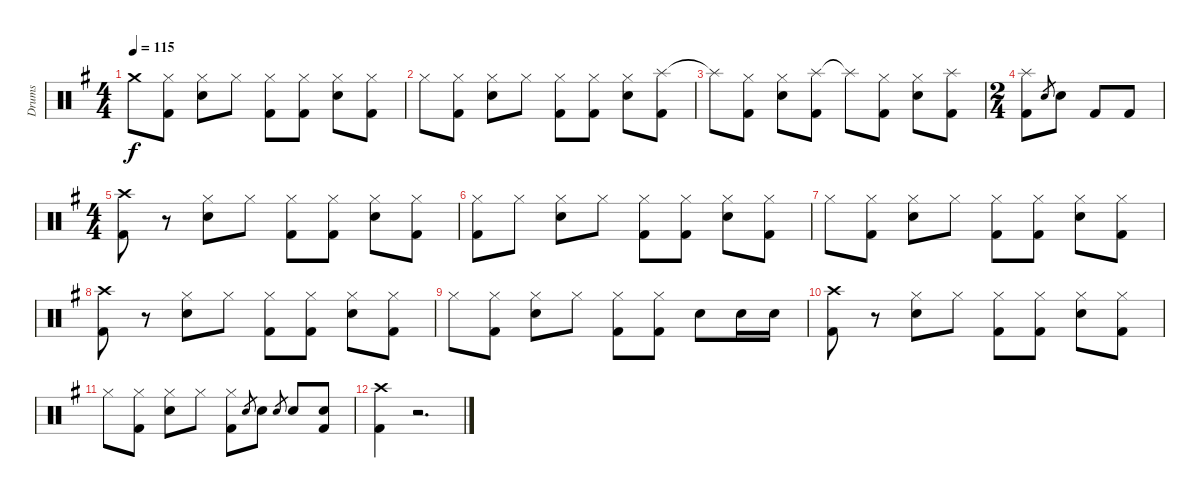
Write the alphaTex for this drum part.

\track ("Drums" "Drums") {instrument percussion}
\staff {score}
\articulation defaults
\ts (4 4)
\tempo 115
\clef neutral
\ks g "Crash medium (hit)"{t}.8{dy f}
("Hi-Hat (closed)" "Kick (hit) 2").8 ("Hi-Hat (closed)" "Electric Snare (hit)").8 "Hi-Hat (closed)".8 ("Hi-Hat (closed)" "Kick (hit) 2").8 ("Hi-Hat (closed)" "Kick (hit) 2").8 ("Hi-Hat (closed)" "Electric Snare (hit)").8 ("Hi-Hat (closed)" "Kick (hit) 2").8 |
"Hi-Hat (closed)".8 ("Hi-Hat (closed)" "Kick (hit) 2").8 ("Hi-Hat (closed)" "Electric Snare (hit)").8 "Hi-Hat (closed)".8 ("Hi-Hat (closed)" "Kick (hit) 2").8 ("Hi-Hat (closed)" "Kick (hit) 2").8 ("Hi-Hat (closed)" "Electric Snare (hit)").8 ("Splash (hit)" "Kick (hit) 2").8 |
"Splash (hit)"{t}.8 ("Hi-Hat (closed)" "Kick (hit) 2").8 ("Hi-Hat (closed)" "Electric Snare (hit)").8 ("Splash (hit)" "Kick (hit) 2").8 "Splash (hit)"{t}.8 ("Hi-Hat (closed)" "Kick (hit) 2").8 ("Hi-Hat (closed)" "Electric Snare (hit)").8 ("Splash (hit)" "Kick (hit) 2").8 |
\ts (2 4)
("Splash (hit)" "Kick (hit) 2").8 "Electric Snare (hit)".8{gr} "Electric Snare (hit)".8 "Kick (hit) 2".8 "Kick (hit) 2".8 |
\ts (4 4)
("Crash high (hit)" "Kick (hit) 2").8 r.8 ("Hi-Hat (closed)" "Electric Snare (hit)").8 "Hi-Hat (closed)".8 ("Hi-Hat (closed)" "Kick (hit) 2").8 ("Hi-Hat (closed)" "Kick (hit) 2").8 ("Hi-Hat (closed)" "Electric Snare (hit)").8 ("Hi-Hat (closed)" "Kick (hit) 2").8 |
("Hi-Hat (closed)" "Kick (hit) 2").8 "Hi-Hat (closed)".8 ("Hi-Hat (closed)" "Electric Snare (hit)").8 "Hi-Hat (closed)".8 ("Hi-Hat (closed)" "Kick (hit) 2").8 ("Hi-Hat (closed)" "Kick (hit) 2").8 ("Hi-Hat (closed)" "Electric Snare (hit)").8 ("Hi-Hat (closed)" "Kick (hit) 2").8 |
"Hi-Hat (closed)".8 ("Hi-Hat (closed)" "Kick (hit) 2").8 ("Hi-Hat (closed)" "Electric Snare (hit)").8 "Hi-Hat (closed)".8 ("Hi-Hat (closed)" "Kick (hit) 2").8 ("Hi-Hat (closed)" "Kick (hit) 2").8 ("Hi-Hat (closed)" "Electric Snare (hit)").8 ("Hi-Hat (closed)" "Kick (hit) 2").8 |
("Crash high (hit)" "Kick (hit) 2").8 r.8 ("Hi-Hat (closed)" "Electric Snare (hit)").8 "Hi-Hat (closed)".8 ("Hi-Hat (closed)" "Kick (hit) 2").8 ("Hi-Hat (closed)" "Kick (hit) 2").8 ("Hi-Hat (closed)" "Electric Snare (hit)").8 ("Hi-Hat (closed)" "Kick (hit) 2").8 |
"Hi-Hat (closed)".8 ("Hi-Hat (closed)" "Kick (hit) 2").8 ("Hi-Hat (closed)" "Electric Snare (hit)").8 "Hi-Hat (closed)".8 ("Hi-Hat (closed)" "Kick (hit) 2").8 ("Hi-Hat (closed)" "Kick (hit) 2").8 "Electric Snare (hit)".8 "Electric Snare (hit)".16 "Electric Snare (hit)".16 |
("Crash high (hit)" "Kick (hit) 2").8 r.8 ("Hi-Hat (closed)" "Electric Snare (hit)").8 "Hi-Hat (closed)".8 ("Hi-Hat (closed)" "Kick (hit) 2").8 ("Hi-Hat (closed)" "Kick (hit) 2").8 ("Hi-Hat (closed)" "Electric Snare (hit)").8 ("Hi-Hat (closed)" "Kick (hit) 2").8 |
"Hi-Hat (closed)".8 ("Hi-Hat (closed)" "Kick (hit) 2").8 ("Hi-Hat (closed)" "Electric Snare (hit)").8 "Hi-Hat (closed)".8 ("Hi-Hat (closed)" "Kick (hit) 2").8 "Electric Snare (hit)".8{gr} "Electric Snare (hit)".8 "Electric Snare (hit)".8{gr} "Electric Snare (hit)".8 ("Electric Snare (hit)" "Kick (hit) 2").8 |
("Crash high (hit)" "Kick (hit) 2").4 r.2{d}
